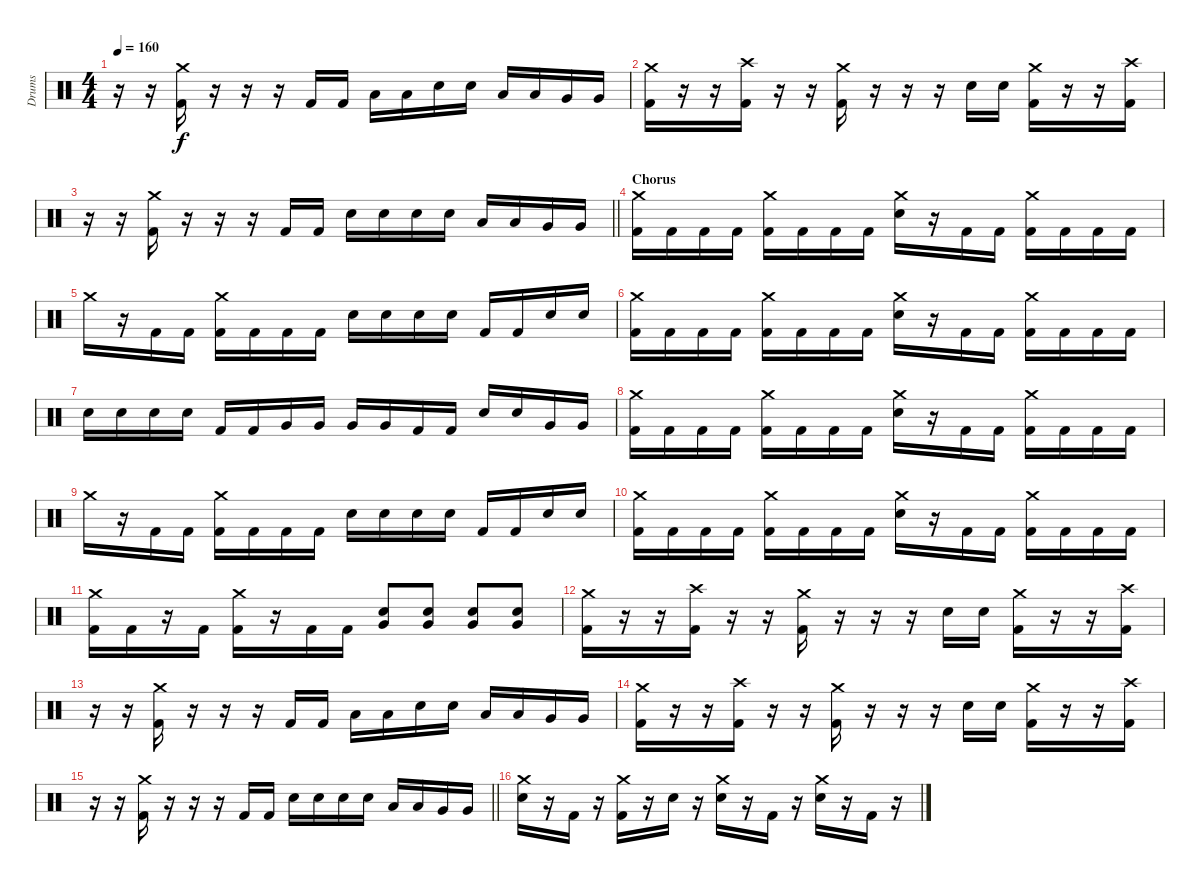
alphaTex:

\track ("Drums" "Drums") {instrument percussion}
\staff {score}
\articulation defaults
\ts (4 4)
\tempo 160
\clef neutral
\ks c
r.16{dy f} r.16 ("Crash medium (hit)" "Kick (hit) 2").16 r.16 r.16 r.16 "Kick (hit) 2".16 "Kick (hit) 2".16 "Low Tom (hit)".16 "Low Tom (hit)".16 "Electric Snare (hit)".16 "Electric Snare (hit)".16 "Low Tom (hit)".16 "Low Tom (hit)".16 "Very Low Tom (hit)".16 "Very Low Tom (hit)".16 |
("Crash medium (hit)" "Kick (hit) 2").16 r.16 r.16 ("Crash high (hit)" "Kick (hit) 2").16 r.16 r.16 ("Crash medium (hit)" "Kick (hit) 2").16 r.16 r.16 r.16 "Electric Snare (hit)".16 "Electric Snare (hit)".16 ("Crash medium (hit)" "Kick (hit) 2").16 r.16 r.16 ("Crash high (hit)" "Kick (hit) 2").16 |
\barLineRight lightlight
r.16 r.16 ("Crash medium (hit)" "Kick (hit) 2").16 r.16 r.16 r.16 "Kick (hit) 2".16 "Kick (hit) 2".16 "Electric Snare (hit)".16 "Electric Snare (hit)".16 "Electric Snare (hit)".16 "Electric Snare (hit)".16 "Low Tom (hit)".16 "Low Tom (hit)".16 "Very Low Tom (hit)".16 "Very Low Tom (hit)".16 |
\section ("" "Chorus")
("Crash medium (hit)" "Kick (hit) 2").16 "Kick (hit) 2".16 "Kick (hit) 2".16 "Kick (hit) 2".16 ("Crash medium (hit)" "Kick (hit) 2").16 "Kick (hit) 2".16 "Kick (hit) 2".16 "Kick (hit) 2".16 ("Crash medium (hit)" "Electric Snare (hit)").16 r.16 "Kick (hit) 2".16 "Kick (hit) 2".16 ("Crash medium (hit)" "Kick (hit) 2").16 "Kick (hit) 2".16 "Kick (hit) 2".16 "Kick (hit) 2".16 |
"Crash medium (hit)".16 r.16 "Kick (hit) 2".16 "Kick (hit) 2".16 ("Crash medium (hit)" "Kick (hit) 2").16 "Kick (hit) 2".16 "Kick (hit) 2".16 "Kick (hit) 2".16 "Electric Snare (hit)".16 "Electric Snare (hit)".16 "Electric Snare (hit)".16 "Electric Snare (hit)".16 "Kick (hit) 2".16 "Kick (hit) 2".16 "Electric Snare (hit)".16 "Electric Snare (hit)".16 |
("Crash medium (hit)" "Kick (hit) 2").16 "Kick (hit) 2".16 "Kick (hit) 2".16 "Kick (hit) 2".16 ("Crash medium (hit)" "Kick (hit) 2").16 "Kick (hit) 2".16 "Kick (hit) 2".16 "Kick (hit) 2".16 ("Crash medium (hit)" "Electric Snare (hit)").16 r.16 "Kick (hit) 2".16 "Kick (hit) 2".16 ("Crash medium (hit)" "Kick (hit) 2").16 "Kick (hit) 2".16 "Kick (hit) 2".16 "Kick (hit) 2".16 |
"Electric Snare (hit)".16 "Electric Snare (hit)".16 "Electric Snare (hit)".16 "Electric Snare (hit)".16 "Kick (hit) 2".16 "Kick (hit) 2".16 "Very Low Tom (hit)".16 "Very Low Tom (hit)".16 "Very Low Tom (hit)".16 "Very Low Tom (hit)".16 "Kick (hit) 2".16 "Kick (hit) 2".16 "Electric Snare (hit)".16 "Electric Snare (hit)".16 "Very Low Tom (hit)".16 "Very Low Tom (hit)".16 |
("Crash medium (hit)" "Kick (hit) 2").16 "Kick (hit) 2".16 "Kick (hit) 2".16 "Kick (hit) 2".16 ("Crash medium (hit)" "Kick (hit) 2").16 "Kick (hit) 2".16 "Kick (hit) 2".16 "Kick (hit) 2".16 ("Crash medium (hit)" "Electric Snare (hit)").16 r.16 "Kick (hit) 2".16 "Kick (hit) 2".16 ("Crash medium (hit)" "Kick (hit) 2").16 "Kick (hit) 2".16 "Kick (hit) 2".16 "Kick (hit) 2".16 |
"Crash medium (hit)".16 r.16 "Kick (hit) 2".16 "Kick (hit) 2".16 ("Crash medium (hit)" "Kick (hit) 2").16 "Kick (hit) 2".16 "Kick (hit) 2".16 "Kick (hit) 2".16 "Electric Snare (hit)".16 "Electric Snare (hit)".16 "Electric Snare (hit)".16 "Electric Snare (hit)".16 "Kick (hit) 2".16 "Kick (hit) 2".16 "Electric Snare (hit)".16 "Electric Snare (hit)".16 |
("Crash medium (hit)" "Kick (hit) 2").16 "Kick (hit) 2".16 "Kick (hit) 2".16 "Kick (hit) 2".16 ("Crash medium (hit)" "Kick (hit) 2").16 "Kick (hit) 2".16 "Kick (hit) 2".16 "Kick (hit) 2".16 ("Crash medium (hit)" "Electric Snare (hit)").16 r.16 "Kick (hit) 2".16 "Kick (hit) 2".16 ("Crash medium (hit)" "Kick (hit) 2").16 "Kick (hit) 2".16 "Kick (hit) 2".16 "Kick (hit) 2".16 |
("Crash medium (hit)" "Kick (hit) 2").16 "Kick (hit) 2".16 r.16 "Kick (hit) 2".16 ("Crash medium (hit)" "Kick (hit) 2").16 r.16 "Kick (hit) 2".16 "Kick (hit) 2".16 ("Very Low Tom (hit)" "Electric Snare (hit)").8 ("Very Low Tom (hit)" "Electric Snare (hit)").8 ("Very Low Tom (hit)" "Electric Snare (hit)").8 ("Very Low Tom (hit)" "Electric Snare (hit)").8 |
("Crash medium (hit)" "Kick (hit) 2").16 r.16 r.16 ("Crash high (hit)" "Kick (hit) 2").16 r.16 r.16 ("Crash medium (hit)" "Kick (hit) 2").16 r.16 r.16 r.16 "Electric Snare (hit)".16 "Electric Snare (hit)".16 ("Crash medium (hit)" "Kick (hit) 2").16 r.16 r.16 ("Crash high (hit)" "Kick (hit) 2").16 |
r.16 r.16 ("Crash medium (hit)" "Kick (hit) 2").16 r.16 r.16 r.16 "Kick (hit) 2".16 "Kick (hit) 2".16 "Low Tom (hit)".16 "Low Tom (hit)".16 "Electric Snare (hit)".16 "Electric Snare (hit)".16 "Low Tom (hit)".16 "Low Tom (hit)".16 "Very Low Tom (hit)".16 "Very Low Tom (hit)".16 |
("Crash medium (hit)" "Kick (hit) 2").16 r.16 r.16 ("Crash high (hit)" "Kick (hit) 2").16 r.16 r.16 ("Crash medium (hit)" "Kick (hit) 2").16 r.16 r.16 r.16 "Electric Snare (hit)".16 "Electric Snare (hit)".16 ("Crash medium (hit)" "Kick (hit) 2").16 r.16 r.16 ("Crash high (hit)" "Kick (hit) 2").16 |
\barLineRight lightlight
r.16 r.16 ("Crash medium (hit)" "Kick (hit) 2").16 r.16 r.16 r.16 "Kick (hit) 2".16 "Kick (hit) 2".16 "Electric Snare (hit)".16 "Electric Snare (hit)".16 "Electric Snare (hit)".16 "Electric Snare (hit)".16 "Low Tom (hit)".16 "Low Tom (hit)".16 "Very Low Tom (hit)".16 "Very Low Tom (hit)".16 |
("Crash medium (hit)" "Electric Snare (hit)").16 r.16 "Kick (hit) 2".16 r.16 ("Crash medium (hit)" "Kick (hit) 2").16 r.16 "Electric Snare (hit)".16 r.16 ("Crash medium (hit)" "Electric Snare (hit)").16 r.16 "Kick (hit) 2".16 r.16 ("Crash medium (hit)" "Electric Snare (hit)").16 r.16 "Kick (hit) 2".16 r.16
